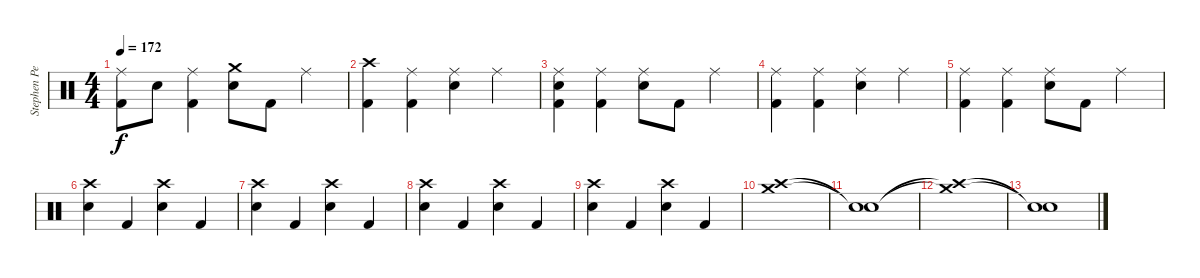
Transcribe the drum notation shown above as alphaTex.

\track ("Stephen Perkins" "Stephen Pe") {instrument percussion}
\staff {score}
\articulation defaults
\ts (4 4)
\tempo 172
\clef neutral
\ks c
("Ride (middle)" "Kick (hit) 2").8{dy f} "Snare (hit) 2".8 ("Ride (middle)" "Kick (hit) 2").4 ("Crash medium (hit)" "Snare (hit) 2").8 "Kick (hit) 2".8 "Ride (middle)".4 |
("Crash high (hit)" "Kick (hit) 2").4 ("Ride (middle)" "Kick (hit) 2").4 ("Ride (middle)" "Snare (hit) 2").4 "Ride (middle)".4 |
("Ride (middle)" "Kick (hit) 2" "Snare (hit)").4 ("Ride (middle)" "Kick (hit) 2").4 ("Ride (middle)" "Snare (hit) 2").8 "Kick (hit) 2".8 "Ride (middle)".4 |
("Ride (middle)" "Kick (hit) 2").4 ("Ride (middle)" "Kick (hit) 2").4 ("Ride (middle)" "Snare (hit) 2").4 "Ride (middle)".4 |
("Ride (middle)" "Kick (hit) 2").4 ("Ride (middle)" "Kick (hit) 2").4 ("Ride (middle)" "Snare (hit) 2").8 "Kick (hit) 2".8 "Ride (middle)".4 |
("Crash high (hit)" "Snare (hit) 2").4 "Kick (hit) 2".4 ("Crash high (hit)" "Snare (hit) 2").4 "Kick (hit) 2".4 |
("Crash high (hit)" "Snare (hit) 2").4 "Kick (hit) 2".4 ("Crash high (hit)" "Snare (hit) 2").4 "Kick (hit) 2".4 |
("Crash high (hit)" "Snare (hit) 2").4 "Kick (hit) 2".4 ("Crash high (hit)" "Snare (hit) 2").4 "Kick (hit) 2".4 |
("Crash high (hit)" "Snare (hit) 2").4 "Kick (hit) 2".4 ("Crash high (hit)" "Snare (hit) 2").4 "Kick (hit) 2".4 |
("Crash high (hit)" "Crash medium (hit)").1 |
("Snare (hit)"{t} "Snare (hit)"{t}).1 |
("Crash high (hit)"{t} "Crash medium (hit)"{t}).1 |
("Snare (hit)"{t} "Snare (hit)"{t}).1
